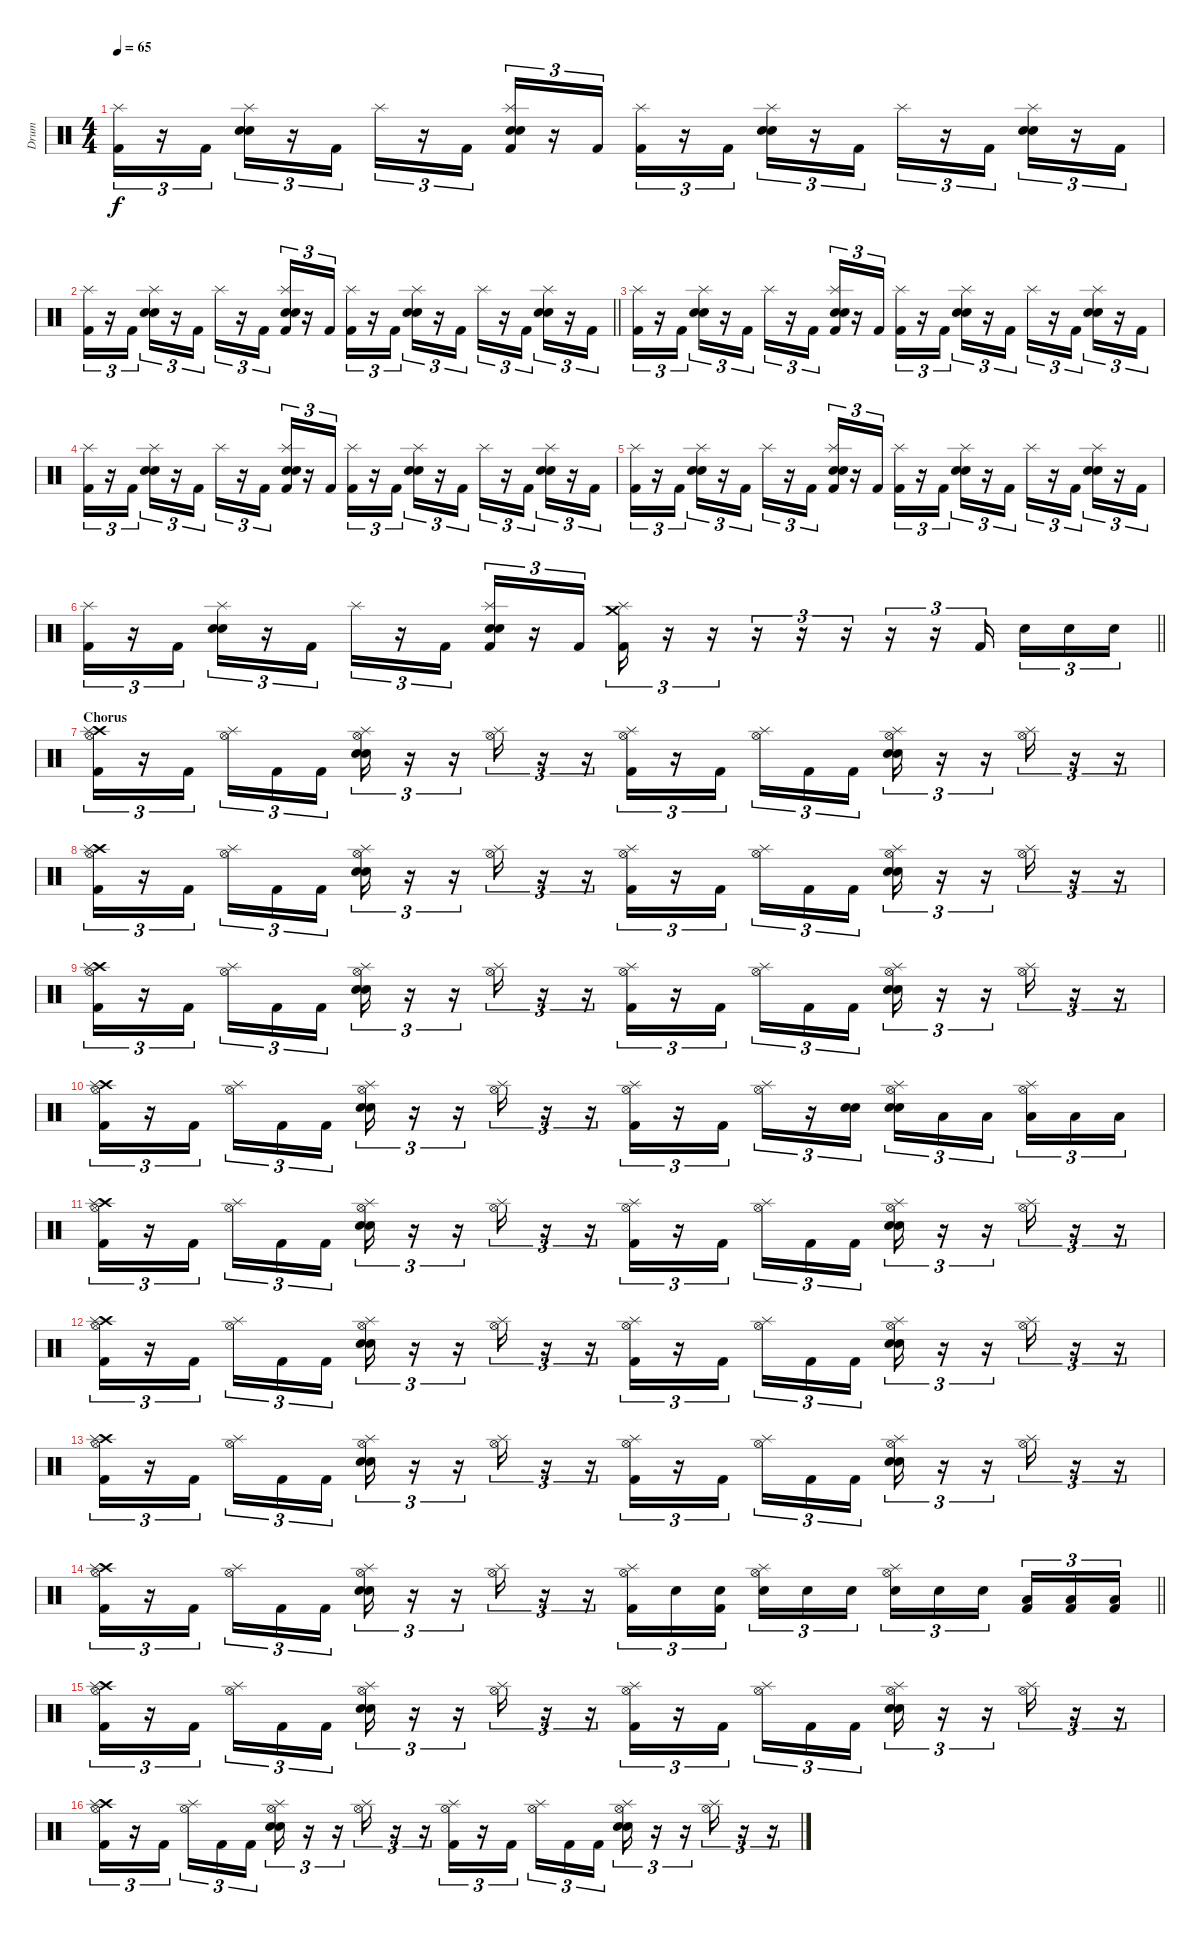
\track ("Drum" "Drum") {instrument percussion}
\staff {score}
\articulation defaults
\ts (4 4)
\tempo 65
\clef neutral
\ks c
("Kick (hit) 2" "Splash (hit)").16{tu (3 2) dy f} r.16{tu (3 2)} "Kick (hit) 2".16{tu (3 2)} ("Electric Snare (hit)" "Electric Snare (hit)" "Splash (hit)").16{tu (3 2)} r.16{tu (3 2)} "Kick (hit) 2".16{tu (3 2)} "Splash (hit)".16{tu (3 2)} r.16{tu (3 2)} "Kick (hit) 2".16{tu (3 2)} ("Electric Snare (hit)" "Electric Snare (hit)" "Kick (hit) 2" "Splash (hit)").16{tu (3 2)} r.16{tu (3 2)} "Kick (hit) 2".16{tu (3 2)} ("Kick (hit) 2" "Splash (hit)").16{tu (3 2)} r.16{tu (3 2)} "Kick (hit) 2".16{tu (3 2)} ("Electric Snare (hit)" "Electric Snare (hit)" "Splash (hit)").16{tu (3 2)} r.16{tu (3 2)} "Kick (hit) 2".16{tu (3 2)} "Splash (hit)".16{tu (3 2)} r.16{tu (3 2)} "Kick (hit) 2".16{tu (3 2)} ("Electric Snare (hit)" "Electric Snare (hit)" "Splash (hit)").16{tu (3 2)} r.16{tu (3 2)} "Kick (hit) 2".16{tu (3 2)} |
\barLineRight lightlight
("Kick (hit) 2" "Splash (hit)").16{tu (3 2)} r.16{tu (3 2)} "Kick (hit) 2".16{tu (3 2)} ("Electric Snare (hit)" "Electric Snare (hit)" "Splash (hit)").16{tu (3 2)} r.16{tu (3 2)} "Kick (hit) 2".16{tu (3 2)} "Splash (hit)".16{tu (3 2)} r.16{tu (3 2)} "Kick (hit) 2".16{tu (3 2)} ("Electric Snare (hit)" "Electric Snare (hit)" "Kick (hit) 2" "Splash (hit)").16{tu (3 2)} r.16{tu (3 2)} "Kick (hit) 2".16{tu (3 2)} ("Kick (hit) 2" "Splash (hit)").16{tu (3 2)} r.16{tu (3 2)} "Kick (hit) 2".16{tu (3 2)} ("Electric Snare (hit)" "Electric Snare (hit)" "Splash (hit)").16{tu (3 2)} r.16{tu (3 2)} "Kick (hit) 2".16{tu (3 2)} "Splash (hit)".16{tu (3 2)} r.16{tu (3 2)} "Kick (hit) 2".16{tu (3 2)} ("Electric Snare (hit)" "Electric Snare (hit)" "Splash (hit)").16{tu (3 2)} r.16{tu (3 2)} "Kick (hit) 2".16{tu (3 2)} |
("Kick (hit) 2" "Splash (hit)").16{tu (3 2)} r.16{tu (3 2)} "Kick (hit) 2".16{tu (3 2)} ("Electric Snare (hit)" "Electric Snare (hit)" "Splash (hit)").16{tu (3 2)} r.16{tu (3 2)} "Kick (hit) 2".16{tu (3 2)} "Splash (hit)".16{tu (3 2)} r.16{tu (3 2)} "Kick (hit) 2".16{tu (3 2)} ("Electric Snare (hit)" "Electric Snare (hit)" "Kick (hit) 2" "Splash (hit)").16{tu (3 2)} r.16{tu (3 2)} "Kick (hit) 2".16{tu (3 2)} ("Kick (hit) 2" "Splash (hit)").16{tu (3 2)} r.16{tu (3 2)} "Kick (hit) 2".16{tu (3 2)} ("Electric Snare (hit)" "Electric Snare (hit)" "Splash (hit)").16{tu (3 2)} r.16{tu (3 2)} "Kick (hit) 2".16{tu (3 2)} "Splash (hit)".16{tu (3 2)} r.16{tu (3 2)} "Kick (hit) 2".16{tu (3 2)} ("Electric Snare (hit)" "Electric Snare (hit)" "Splash (hit)").16{tu (3 2)} r.16{tu (3 2)} "Kick (hit) 2".16{tu (3 2)} |
("Kick (hit) 2" "Splash (hit)").16{tu (3 2)} r.16{tu (3 2)} "Kick (hit) 2".16{tu (3 2)} ("Electric Snare (hit)" "Electric Snare (hit)" "Splash (hit)").16{tu (3 2)} r.16{tu (3 2)} "Kick (hit) 2".16{tu (3 2)} "Splash (hit)".16{tu (3 2)} r.16{tu (3 2)} "Kick (hit) 2".16{tu (3 2)} ("Electric Snare (hit)" "Electric Snare (hit)" "Kick (hit) 2" "Splash (hit)").16{tu (3 2)} r.16{tu (3 2)} "Kick (hit) 2".16{tu (3 2)} ("Kick (hit) 2" "Splash (hit)").16{tu (3 2)} r.16{tu (3 2)} "Kick (hit) 2".16{tu (3 2)} ("Electric Snare (hit)" "Electric Snare (hit)" "Splash (hit)").16{tu (3 2)} r.16{tu (3 2)} "Kick (hit) 2".16{tu (3 2)} "Splash (hit)".16{tu (3 2)} r.16{tu (3 2)} "Kick (hit) 2".16{tu (3 2)} ("Electric Snare (hit)" "Electric Snare (hit)" "Splash (hit)").16{tu (3 2)} r.16{tu (3 2)} "Kick (hit) 2".16{tu (3 2)} |
("Kick (hit) 2" "Splash (hit)").16{tu (3 2)} r.16{tu (3 2)} "Kick (hit) 2".16{tu (3 2)} ("Electric Snare (hit)" "Electric Snare (hit)" "Splash (hit)").16{tu (3 2)} r.16{tu (3 2)} "Kick (hit) 2".16{tu (3 2)} "Splash (hit)".16{tu (3 2)} r.16{tu (3 2)} "Kick (hit) 2".16{tu (3 2)} ("Electric Snare (hit)" "Electric Snare (hit)" "Kick (hit) 2" "Splash (hit)").16{tu (3 2)} r.16{tu (3 2)} "Kick (hit) 2".16{tu (3 2)} ("Kick (hit) 2" "Splash (hit)").16{tu (3 2)} r.16{tu (3 2)} "Kick (hit) 2".16{tu (3 2)} ("Electric Snare (hit)" "Electric Snare (hit)" "Splash (hit)").16{tu (3 2)} r.16{tu (3 2)} "Kick (hit) 2".16{tu (3 2)} "Splash (hit)".16{tu (3 2)} r.16{tu (3 2)} "Kick (hit) 2".16{tu (3 2)} ("Electric Snare (hit)" "Electric Snare (hit)" "Splash (hit)").16{tu (3 2)} r.16{tu (3 2)} "Kick (hit) 2".16{tu (3 2)} |
\barLineRight lightlight
("Kick (hit) 2" "Splash (hit)").16{tu (3 2)} r.16{tu (3 2)} "Kick (hit) 2".16{tu (3 2)} ("Electric Snare (hit)" "Electric Snare (hit)" "Splash (hit)").16{tu (3 2)} r.16{tu (3 2)} "Kick (hit) 2".16{tu (3 2)} "Splash (hit)".16{tu (3 2)} r.16{tu (3 2)} "Kick (hit) 2".16{tu (3 2)} ("Electric Snare (hit)" "Electric Snare (hit)" "Kick (hit) 2" "Splash (hit)").16{tu (3 2)} r.16{tu (3 2)} "Kick (hit) 2".16{tu (3 2)} ("Crash medium (hit)" "Kick (hit) 2" "Splash (hit)").16{tu (3 2)} r.16{tu (3 2)} r.16{tu (3 2)} r.16{tu (3 2)} r.16{tu (3 2)} r.16{tu (3 2)} r.16{tu (3 2)} r.16{tu (3 2)} "Kick (hit) 2".16{tu (3 2) beam splitsecondary} "Electric Snare (hit)".16{tu (3 2)} "Electric Snare (hit)".16{tu (3 2)} "Electric Snare (hit)".16{tu (3 2)} |
\section ("" "Chorus")
("Hi-Hat (open)" "Crash high (hit)" "Kick (hit) 2" "Splash (hit)").16{tu (3 2)} r.16{tu (3 2)} "Kick (hit) 2".16{tu (3 2) beam splitsecondary} ("Hi-Hat (open)" "Splash (hit)").16{tu (3 2)} "Kick (hit) 2".16{tu (3 2)} "Kick (hit) 2".16{tu (3 2)} ("Hi-Hat (open)" "Electric Snare (hit)" "Electric Snare (hit)" "Splash (hit)").16{tu (3 2)} r.16{tu (3 2)} r.16{tu (3 2)} ("Hi-Hat (open)" "Splash (hit)").16{tu (3 2)} r.16{tu (3 2)} r.16{tu (3 2)} ("Hi-Hat (open)" "Kick (hit) 2" "Splash (hit)").16{tu (3 2)} r.16{tu (3 2)} "Kick (hit) 2".16{tu (3 2) beam splitsecondary} ("Hi-Hat (open)" "Splash (hit)").16{tu (3 2)} "Kick (hit) 2".16{tu (3 2)} "Kick (hit) 2".16{tu (3 2)} ("Hi-Hat (open)" "Electric Snare (hit)" "Electric Snare (hit)" "Splash (hit)").16{tu (3 2)} r.16{tu (3 2)} r.16{tu (3 2)} ("Hi-Hat (open)" "Splash (hit)").16{tu (3 2)} r.16{tu (3 2)} r.16{tu (3 2)} |
("Hi-Hat (open)" "Crash high (hit)" "Kick (hit) 2" "Splash (hit)").16{tu (3 2)} r.16{tu (3 2)} "Kick (hit) 2".16{tu (3 2) beam splitsecondary} ("Hi-Hat (open)" "Splash (hit)").16{tu (3 2)} "Kick (hit) 2".16{tu (3 2)} "Kick (hit) 2".16{tu (3 2)} ("Hi-Hat (open)" "Electric Snare (hit)" "Electric Snare (hit)" "Splash (hit)").16{tu (3 2)} r.16{tu (3 2)} r.16{tu (3 2)} ("Hi-Hat (open)" "Splash (hit)").16{tu (3 2)} r.16{tu (3 2)} r.16{tu (3 2)} ("Hi-Hat (open)" "Kick (hit) 2" "Splash (hit)").16{tu (3 2)} r.16{tu (3 2)} "Kick (hit) 2".16{tu (3 2) beam splitsecondary} ("Hi-Hat (open)" "Splash (hit)").16{tu (3 2)} "Kick (hit) 2".16{tu (3 2)} "Kick (hit) 2".16{tu (3 2)} ("Hi-Hat (open)" "Electric Snare (hit)" "Electric Snare (hit)" "Splash (hit)").16{tu (3 2)} r.16{tu (3 2)} r.16{tu (3 2)} ("Hi-Hat (open)" "Splash (hit)").16{tu (3 2)} r.16{tu (3 2)} r.16{tu (3 2)} |
("Hi-Hat (open)" "Crash high (hit)" "Kick (hit) 2" "Splash (hit)").16{tu (3 2)} r.16{tu (3 2)} "Kick (hit) 2".16{tu (3 2) beam splitsecondary} ("Hi-Hat (open)" "Splash (hit)").16{tu (3 2)} "Kick (hit) 2".16{tu (3 2)} "Kick (hit) 2".16{tu (3 2)} ("Hi-Hat (open)" "Electric Snare (hit)" "Electric Snare (hit)" "Splash (hit)").16{tu (3 2)} r.16{tu (3 2)} r.16{tu (3 2)} ("Hi-Hat (open)" "Splash (hit)").16{tu (3 2)} r.16{tu (3 2)} r.16{tu (3 2)} ("Hi-Hat (open)" "Kick (hit) 2" "Splash (hit)").16{tu (3 2)} r.16{tu (3 2)} "Kick (hit) 2".16{tu (3 2) beam splitsecondary} ("Hi-Hat (open)" "Splash (hit)").16{tu (3 2)} "Kick (hit) 2".16{tu (3 2)} "Kick (hit) 2".16{tu (3 2)} ("Hi-Hat (open)" "Electric Snare (hit)" "Electric Snare (hit)" "Splash (hit)").16{tu (3 2)} r.16{tu (3 2)} r.16{tu (3 2)} ("Hi-Hat (open)" "Splash (hit)").16{tu (3 2)} r.16{tu (3 2)} r.16{tu (3 2)} |
("Hi-Hat (open)" "Crash high (hit)" "Kick (hit) 2" "Splash (hit)").16{tu (3 2)} r.16{tu (3 2)} "Kick (hit) 2".16{tu (3 2) beam splitsecondary} ("Hi-Hat (open)" "Splash (hit)").16{tu (3 2)} "Kick (hit) 2".16{tu (3 2)} "Kick (hit) 2".16{tu (3 2)} ("Hi-Hat (open)" "Electric Snare (hit)" "Electric Snare (hit)" "Splash (hit)").16{tu (3 2)} r.16{tu (3 2)} r.16{tu (3 2)} ("Hi-Hat (open)" "Splash (hit)").16{tu (3 2)} r.16{tu (3 2)} r.16{tu (3 2)} ("Hi-Hat (open)" "Kick (hit) 2" "Splash (hit)").16{tu (3 2)} r.16{tu (3 2)} "Kick (hit) 2".16{tu (3 2)} ("Hi-Hat (open)" "Splash (hit)").16{tu (3 2)} r.16{tu (3 2)} ("Electric Snare (hit)" "Electric Snare (hit)").16{tu (3 2)} ("Hi-Hat (open)" "Electric Snare (hit)" "Electric Snare (hit)" "Splash (hit)").16{tu (3 2)} "Low Tom (hit)".16{tu (3 2)} "Low Tom (hit)".16{tu (3 2) beam splitsecondary} ("Hi-Hat (open)" "Low Tom (hit)" "Splash (hit)").16{tu (3 2)} "Low Tom (hit)".16{tu (3 2)} "Low Tom (hit)".16{tu (3 2)} |
("Hi-Hat (open)" "Crash high (hit)" "Kick (hit) 2" "Splash (hit)").16{tu (3 2)} r.16{tu (3 2)} "Kick (hit) 2".16{tu (3 2) beam splitsecondary} ("Hi-Hat (open)" "Splash (hit)").16{tu (3 2)} "Kick (hit) 2".16{tu (3 2)} "Kick (hit) 2".16{tu (3 2)} ("Hi-Hat (open)" "Electric Snare (hit)" "Electric Snare (hit)" "Splash (hit)").16{tu (3 2)} r.16{tu (3 2)} r.16{tu (3 2)} ("Hi-Hat (open)" "Splash (hit)").16{tu (3 2)} r.16{tu (3 2)} r.16{tu (3 2)} ("Hi-Hat (open)" "Kick (hit) 2" "Splash (hit)").16{tu (3 2)} r.16{tu (3 2)} "Kick (hit) 2".16{tu (3 2) beam splitsecondary} ("Hi-Hat (open)" "Splash (hit)").16{tu (3 2)} "Kick (hit) 2".16{tu (3 2)} "Kick (hit) 2".16{tu (3 2)} ("Hi-Hat (open)" "Electric Snare (hit)" "Electric Snare (hit)" "Splash (hit)").16{tu (3 2)} r.16{tu (3 2)} r.16{tu (3 2)} ("Hi-Hat (open)" "Splash (hit)").16{tu (3 2)} r.16{tu (3 2)} r.16{tu (3 2)} |
("Hi-Hat (open)" "Crash high (hit)" "Kick (hit) 2" "Splash (hit)").16{tu (3 2)} r.16{tu (3 2)} "Kick (hit) 2".16{tu (3 2) beam splitsecondary} ("Hi-Hat (open)" "Splash (hit)").16{tu (3 2)} "Kick (hit) 2".16{tu (3 2)} "Kick (hit) 2".16{tu (3 2)} ("Hi-Hat (open)" "Electric Snare (hit)" "Electric Snare (hit)" "Splash (hit)").16{tu (3 2)} r.16{tu (3 2)} r.16{tu (3 2)} ("Hi-Hat (open)" "Splash (hit)").16{tu (3 2)} r.16{tu (3 2)} r.16{tu (3 2)} ("Hi-Hat (open)" "Kick (hit) 2" "Splash (hit)").16{tu (3 2)} r.16{tu (3 2)} "Kick (hit) 2".16{tu (3 2) beam splitsecondary} ("Hi-Hat (open)" "Splash (hit)").16{tu (3 2)} "Kick (hit) 2".16{tu (3 2)} "Kick (hit) 2".16{tu (3 2)} ("Hi-Hat (open)" "Electric Snare (hit)" "Electric Snare (hit)" "Splash (hit)").16{tu (3 2)} r.16{tu (3 2)} r.16{tu (3 2)} ("Hi-Hat (open)" "Splash (hit)").16{tu (3 2)} r.16{tu (3 2)} r.16{tu (3 2)} |
("Hi-Hat (open)" "Crash high (hit)" "Kick (hit) 2" "Splash (hit)").16{tu (3 2)} r.16{tu (3 2)} "Kick (hit) 2".16{tu (3 2) beam splitsecondary} ("Hi-Hat (open)" "Splash (hit)").16{tu (3 2)} "Kick (hit) 2".16{tu (3 2)} "Kick (hit) 2".16{tu (3 2)} ("Hi-Hat (open)" "Electric Snare (hit)" "Electric Snare (hit)" "Splash (hit)").16{tu (3 2)} r.16{tu (3 2)} r.16{tu (3 2)} ("Hi-Hat (open)" "Splash (hit)").16{tu (3 2)} r.16{tu (3 2)} r.16{tu (3 2)} ("Hi-Hat (open)" "Kick (hit) 2" "Splash (hit)").16{tu (3 2)} r.16{tu (3 2)} "Kick (hit) 2".16{tu (3 2) beam splitsecondary} ("Hi-Hat (open)" "Splash (hit)").16{tu (3 2)} "Kick (hit) 2".16{tu (3 2)} "Kick (hit) 2".16{tu (3 2)} ("Hi-Hat (open)" "Electric Snare (hit)" "Electric Snare (hit)" "Splash (hit)").16{tu (3 2)} r.16{tu (3 2)} r.16{tu (3 2)} ("Hi-Hat (open)" "Splash (hit)").16{tu (3 2)} r.16{tu (3 2)} r.16{tu (3 2)} |
\barLineRight lightlight
("Hi-Hat (open)" "Crash high (hit)" "Kick (hit) 2" "Splash (hit)").16{tu (3 2)} r.16{tu (3 2)} "Kick (hit) 2".16{tu (3 2) beam splitsecondary} ("Hi-Hat (open)" "Splash (hit)").16{tu (3 2)} "Kick (hit) 2".16{tu (3 2)} "Kick (hit) 2".16{tu (3 2)} ("Hi-Hat (open)" "Electric Snare (hit)" "Electric Snare (hit)" "Splash (hit)").16{tu (3 2)} r.16{tu (3 2)} r.16{tu (3 2)} ("Hi-Hat (open)" "Splash (hit)").16{tu (3 2)} r.16{tu (3 2)} r.16{tu (3 2)} ("Hi-Hat (open)" "Kick (hit) 2" "Splash (hit)").16{tu (3 2)} "Electric Snare (hit)".16{tu (3 2)} ("Electric Snare (hit)" "Kick (hit) 2").16{tu (3 2) beam splitsecondary} ("Hi-Hat (open)" "Electric Snare (hit)" "Splash (hit)").16{tu (3 2)} "Electric Snare (hit)".16{tu (3 2)} "Electric Snare (hit)".16{tu (3 2)} ("Hi-Hat (open)" "Electric Snare (hit)" "Splash (hit)").16{tu (3 2)} "Electric Snare (hit)".16{tu (3 2)} "Electric Snare (hit)".16{tu (3 2) beam splitsecondary} ("Low Tom (hit)" "Kick (hit) 2").16{tu (3 2)} ("Low Tom (hit)" "Kick (hit) 2").16{tu (3 2)} ("Low Tom (hit)" "Kick (hit) 2").16{tu (3 2)} |
("Hi-Hat (open)" "Crash high (hit)" "Kick (hit) 2" "Splash (hit)").16{tu (3 2)} r.16{tu (3 2)} "Kick (hit) 2".16{tu (3 2) beam splitsecondary} ("Hi-Hat (open)" "Splash (hit)").16{tu (3 2)} "Kick (hit) 2".16{tu (3 2)} "Kick (hit) 2".16{tu (3 2)} ("Hi-Hat (open)" "Electric Snare (hit)" "Electric Snare (hit)" "Splash (hit)").16{tu (3 2)} r.16{tu (3 2)} r.16{tu (3 2)} ("Hi-Hat (open)" "Splash (hit)").16{tu (3 2)} r.16{tu (3 2)} r.16{tu (3 2)} ("Hi-Hat (open)" "Kick (hit) 2" "Splash (hit)").16{tu (3 2)} r.16{tu (3 2)} "Kick (hit) 2".16{tu (3 2) beam splitsecondary} ("Hi-Hat (open)" "Splash (hit)").16{tu (3 2)} "Kick (hit) 2".16{tu (3 2)} "Kick (hit) 2".16{tu (3 2)} ("Hi-Hat (open)" "Electric Snare (hit)" "Electric Snare (hit)" "Splash (hit)").16{tu (3 2)} r.16{tu (3 2)} r.16{tu (3 2)} ("Hi-Hat (open)" "Splash (hit)").16{tu (3 2)} r.16{tu (3 2)} r.16{tu (3 2)} |
("Hi-Hat (open)" "Crash high (hit)" "Kick (hit) 2" "Splash (hit)").16{tu (3 2)} r.16{tu (3 2)} "Kick (hit) 2".16{tu (3 2) beam splitsecondary} ("Hi-Hat (open)" "Splash (hit)").16{tu (3 2)} "Kick (hit) 2".16{tu (3 2)} "Kick (hit) 2".16{tu (3 2)} ("Hi-Hat (open)" "Electric Snare (hit)" "Electric Snare (hit)" "Splash (hit)").16{tu (3 2)} r.16{tu (3 2)} r.16{tu (3 2)} ("Hi-Hat (open)" "Splash (hit)").16{tu (3 2)} r.16{tu (3 2)} r.16{tu (3 2)} ("Hi-Hat (open)" "Kick (hit) 2" "Splash (hit)").16{tu (3 2)} r.16{tu (3 2)} "Kick (hit) 2".16{tu (3 2) beam splitsecondary} ("Hi-Hat (open)" "Splash (hit)").16{tu (3 2)} "Kick (hit) 2".16{tu (3 2)} "Kick (hit) 2".16{tu (3 2)} ("Hi-Hat (open)" "Electric Snare (hit)" "Electric Snare (hit)" "Splash (hit)").16{tu (3 2)} r.16{tu (3 2)} r.16{tu (3 2)} ("Hi-Hat (open)" "Splash (hit)").16{tu (3 2)} r.16{tu (3 2)} r.16{tu (3 2)}
